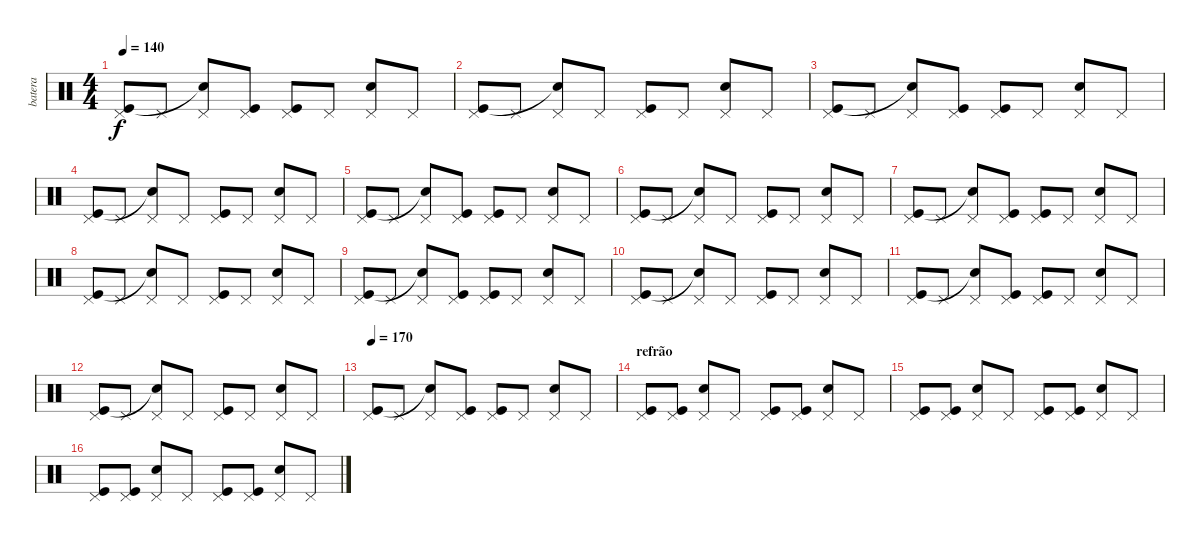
\track ("batera" "batera") {instrument percussion}
\staff {score}
\articulation defaults
\ts (4 4)
\tempo 140
\clef neutral
\ks c
("Pedal Hi-Hat (hit)" "Kick (hit)").8{dy f} "Pedal Hi-Hat (hit)".8 ("Pedal Hi-Hat (hit)" "Snare (hit)"{t}).8 ("Pedal Hi-Hat (hit)" "Kick (hit)").8 ("Pedal Hi-Hat (hit)" "Kick (hit)").8 "Pedal Hi-Hat (hit)".8 ("Pedal Hi-Hat (hit)" "Snare (hit) 2").8 "Pedal Hi-Hat (hit)".8 |
("Pedal Hi-Hat (hit)" "Kick (hit)").8 "Pedal Hi-Hat (hit)".8 ("Pedal Hi-Hat (hit)" "Snare (hit)"{t}).8 "Pedal Hi-Hat (hit)".8 ("Pedal Hi-Hat (hit)" "Kick (hit)").8 "Pedal Hi-Hat (hit)".8 ("Pedal Hi-Hat (hit)" "Snare (hit) 2").8 "Pedal Hi-Hat (hit)".8 |
("Pedal Hi-Hat (hit)" "Kick (hit)").8 "Pedal Hi-Hat (hit)".8 ("Pedal Hi-Hat (hit)" "Snare (hit)"{t}).8 ("Pedal Hi-Hat (hit)" "Kick (hit)").8 ("Pedal Hi-Hat (hit)" "Kick (hit)").8 "Pedal Hi-Hat (hit)".8 ("Pedal Hi-Hat (hit)" "Snare (hit) 2").8 "Pedal Hi-Hat (hit)".8 |
("Pedal Hi-Hat (hit)" "Kick (hit)").8 "Pedal Hi-Hat (hit)".8 ("Pedal Hi-Hat (hit)" "Snare (hit)"{t}).8 "Pedal Hi-Hat (hit)".8 ("Pedal Hi-Hat (hit)" "Kick (hit)").8 "Pedal Hi-Hat (hit)".8 ("Pedal Hi-Hat (hit)" "Snare (hit) 2").8 "Pedal Hi-Hat (hit)".8 |
("Pedal Hi-Hat (hit)" "Kick (hit)").8 "Pedal Hi-Hat (hit)".8 ("Pedal Hi-Hat (hit)" "Snare (hit)"{t}).8 ("Pedal Hi-Hat (hit)" "Kick (hit)").8 ("Pedal Hi-Hat (hit)" "Kick (hit)").8 "Pedal Hi-Hat (hit)".8 ("Pedal Hi-Hat (hit)" "Snare (hit) 2").8 "Pedal Hi-Hat (hit)".8 |
("Pedal Hi-Hat (hit)" "Kick (hit)").8 "Pedal Hi-Hat (hit)".8 ("Pedal Hi-Hat (hit)" "Snare (hit)"{t}).8 "Pedal Hi-Hat (hit)".8 ("Pedal Hi-Hat (hit)" "Kick (hit)").8 "Pedal Hi-Hat (hit)".8 ("Pedal Hi-Hat (hit)" "Snare (hit) 2").8 "Pedal Hi-Hat (hit)".8 |
("Pedal Hi-Hat (hit)" "Kick (hit)").8 "Pedal Hi-Hat (hit)".8 ("Pedal Hi-Hat (hit)" "Snare (hit)"{t}).8 ("Pedal Hi-Hat (hit)" "Kick (hit)").8 ("Pedal Hi-Hat (hit)" "Kick (hit)").8 "Pedal Hi-Hat (hit)".8 ("Pedal Hi-Hat (hit)" "Snare (hit) 2").8 "Pedal Hi-Hat (hit)".8 |
("Pedal Hi-Hat (hit)" "Kick (hit)").8 "Pedal Hi-Hat (hit)".8 ("Pedal Hi-Hat (hit)" "Snare (hit)"{t}).8 "Pedal Hi-Hat (hit)".8 ("Pedal Hi-Hat (hit)" "Kick (hit)").8 "Pedal Hi-Hat (hit)".8 ("Pedal Hi-Hat (hit)" "Snare (hit) 2").8 "Pedal Hi-Hat (hit)".8 |
("Pedal Hi-Hat (hit)" "Kick (hit)").8 "Pedal Hi-Hat (hit)".8 ("Pedal Hi-Hat (hit)" "Snare (hit)"{t}).8 ("Pedal Hi-Hat (hit)" "Kick (hit)").8 ("Pedal Hi-Hat (hit)" "Kick (hit)").8 "Pedal Hi-Hat (hit)".8 ("Pedal Hi-Hat (hit)" "Snare (hit) 2").8 "Pedal Hi-Hat (hit)".8 |
("Pedal Hi-Hat (hit)" "Kick (hit)").8 "Pedal Hi-Hat (hit)".8 ("Pedal Hi-Hat (hit)" "Snare (hit)"{t}).8 "Pedal Hi-Hat (hit)".8 ("Pedal Hi-Hat (hit)" "Kick (hit)").8 "Pedal Hi-Hat (hit)".8 ("Pedal Hi-Hat (hit)" "Snare (hit) 2").8 "Pedal Hi-Hat (hit)".8 |
("Pedal Hi-Hat (hit)" "Kick (hit)").8 "Pedal Hi-Hat (hit)".8 ("Pedal Hi-Hat (hit)" "Snare (hit)"{t}).8 ("Pedal Hi-Hat (hit)" "Kick (hit)").8 ("Pedal Hi-Hat (hit)" "Kick (hit)").8 "Pedal Hi-Hat (hit)".8 ("Pedal Hi-Hat (hit)" "Snare (hit) 2").8 "Pedal Hi-Hat (hit)".8 |
("Pedal Hi-Hat (hit)" "Kick (hit)").8 "Pedal Hi-Hat (hit)".8 ("Pedal Hi-Hat (hit)" "Snare (hit)"{t}).8 "Pedal Hi-Hat (hit)".8 ("Pedal Hi-Hat (hit)" "Kick (hit)").8 "Pedal Hi-Hat (hit)".8 ("Pedal Hi-Hat (hit)" "Snare (hit) 2").8 "Pedal Hi-Hat (hit)".8 |
\tempo 170
("Pedal Hi-Hat (hit)" "Kick (hit)").8 "Pedal Hi-Hat (hit)".8 ("Pedal Hi-Hat (hit)" "Snare (hit)"{t}).8 ("Pedal Hi-Hat (hit)" "Kick (hit)").8 ("Pedal Hi-Hat (hit)" "Kick (hit)").8 "Pedal Hi-Hat (hit)".8 ("Pedal Hi-Hat (hit)" "Snare (hit) 2").8 "Pedal Hi-Hat (hit)".8 |
\section ("" "refrão")
("Pedal Hi-Hat (hit)" "Kick (hit)").8 ("Pedal Hi-Hat (hit)" "Kick (hit)").8 ("Pedal Hi-Hat (hit)" "Snare (hit) 2").8 "Pedal Hi-Hat (hit)".8 ("Pedal Hi-Hat (hit)" "Kick (hit)").8 ("Pedal Hi-Hat (hit)" "Kick (hit)").8 ("Pedal Hi-Hat (hit)" "Snare (hit) 2").8 "Pedal Hi-Hat (hit)".8 |
("Pedal Hi-Hat (hit)" "Kick (hit)").8 ("Pedal Hi-Hat (hit)" "Kick (hit)").8 ("Pedal Hi-Hat (hit)" "Snare (hit) 2").8 "Pedal Hi-Hat (hit)".8 ("Pedal Hi-Hat (hit)" "Kick (hit)").8 ("Pedal Hi-Hat (hit)" "Kick (hit)").8 ("Pedal Hi-Hat (hit)" "Snare (hit) 2").8 "Pedal Hi-Hat (hit)".8 |
("Pedal Hi-Hat (hit)" "Kick (hit)").8 ("Pedal Hi-Hat (hit)" "Kick (hit)").8 ("Pedal Hi-Hat (hit)" "Snare (hit) 2").8 "Pedal Hi-Hat (hit)".8 ("Pedal Hi-Hat (hit)" "Kick (hit)").8 ("Pedal Hi-Hat (hit)" "Kick (hit)").8 ("Pedal Hi-Hat (hit)" "Snare (hit) 2").8 "Pedal Hi-Hat (hit)".8
